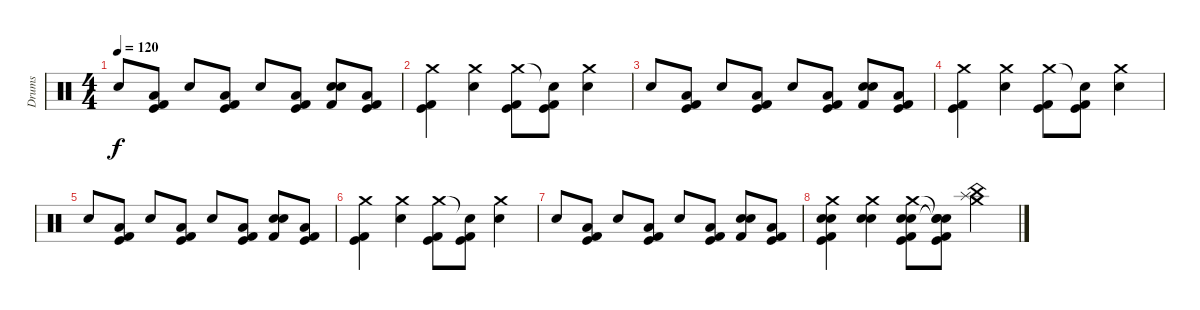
\track ("Drums" "Drums") {instrument percussion}
\staff {score}
\articulation defaults
\ts (4 4)
\tempo 120
\clef neutral
\ks c "Snare (hit) 2".8{dy f}
("Low Floor Tom (hit)" "Kick (hit)" "Kick (hit) 2").8 "Snare (hit) 2".8 ("Low Floor Tom (hit)" "Kick (hit)" "Kick (hit) 2").8 "Snare (hit) 2".8 ("Low Floor Tom (hit)" "Kick (hit)" "Kick (hit) 2").8 ("Electric Snare (hit)" "Snare (hit) 2" "Kick (hit) 2").8 ("Low Floor Tom (hit)" "Kick (hit)" "Kick (hit) 2").8 |
("Crash medium (hit)" "Kick (hit)" "Kick (hit) 2").4 ("Crash medium (hit)" "Snare (hit) 2").4 ("Crash medium (hit)" "Kick (hit)" "Kick (hit) 2").8 ("Snare (hit)"{t} "Kick (hit)" "Kick (hit) 2").8 ("Crash medium (hit)" "Snare (hit) 2").4 |
"Snare (hit) 2".8 ("Low Floor Tom (hit)" "Kick (hit)" "Kick (hit) 2").8 "Snare (hit) 2".8 ("Low Floor Tom (hit)" "Kick (hit)" "Kick (hit) 2").8 "Snare (hit) 2".8 ("Low Floor Tom (hit)" "Kick (hit)" "Kick (hit) 2").8 ("Electric Snare (hit)" "Snare (hit) 2" "Kick (hit) 2").8 ("Low Floor Tom (hit)" "Kick (hit)" "Kick (hit) 2").8 |
("Crash medium (hit)" "Kick (hit)" "Kick (hit) 2").4 ("Crash medium (hit)" "Snare (hit) 2").4 ("Crash medium (hit)" "Kick (hit)" "Kick (hit) 2").8 ("Snare (hit)"{t} "Kick (hit)" "Kick (hit) 2").8 ("Crash medium (hit)" "Snare (hit) 2").4 |
"Snare (hit) 2".8 ("Low Floor Tom (hit)" "Kick (hit)" "Kick (hit) 2").8 "Snare (hit) 2".8 ("Low Floor Tom (hit)" "Kick (hit)" "Kick (hit) 2").8 "Snare (hit) 2".8 ("Low Floor Tom (hit)" "Kick (hit)" "Kick (hit) 2").8 ("Electric Snare (hit)" "Snare (hit) 2" "Kick (hit) 2").8 ("Low Floor Tom (hit)" "Kick (hit)" "Kick (hit) 2").8 |
("Crash medium (hit)" "Kick (hit)" "Kick (hit) 2").4 ("Crash medium (hit)" "Snare (hit) 2").4 ("Crash medium (hit)" "Kick (hit)" "Kick (hit) 2").8 ("Snare (hit)"{t} "Kick (hit)" "Kick (hit) 2").8 ("Crash medium (hit)" "Snare (hit) 2").4 |
"Snare (hit) 2".8 ("Low Floor Tom (hit)" "Kick (hit)" "Kick (hit) 2").8 "Snare (hit) 2".8 ("Low Floor Tom (hit)" "Kick (hit)" "Kick (hit) 2").8 "Snare (hit) 2".8 ("Low Floor Tom (hit)" "Kick (hit)" "Kick (hit) 2").8 ("Electric Snare (hit)" "Snare (hit) 2" "Kick (hit) 2").8 ("Low Floor Tom (hit)" "Kick (hit)" "Kick (hit) 2").8 |
("Electric Snare (hit)" "Crash medium (hit)" "Snare (hit) 2" "Kick (hit)" "Kick (hit) 2").4 ("Electric Snare (hit)" "Crash medium (hit)" "Snare (hit) 2").4 ("Electric Snare (hit)" "Crash medium (hit)" "Snare (hit) 2" "Kick (hit)" "Kick (hit) 2").8 ("Snare (hit)"{t} "Snare (hit)"{t} "Snare (hit)"{t} "Kick (hit)" "Kick (hit) 2").8 ("China (hit)" "Splash (hit)" "Crash medium (hit)").4
